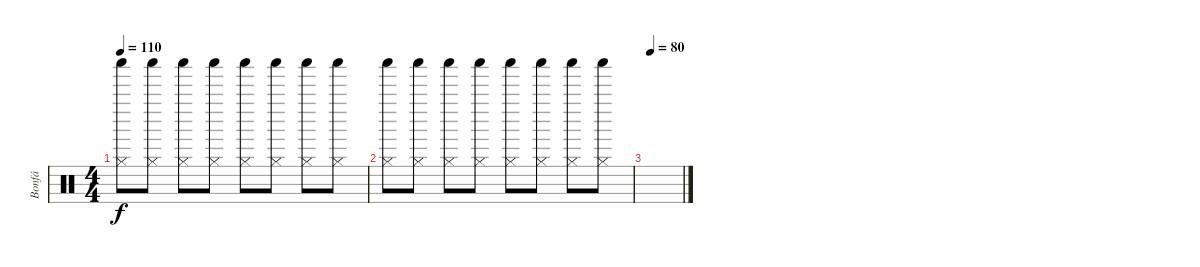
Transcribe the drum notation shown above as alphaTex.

\track ("Bonfá" "Bonfá") {instrument percussion}
\staff {score}
\articulation defaults
\ts (4 4)
\tempo 110
\clef neutral
\ks c
("Shaker (hit)" "Hi-Hat (closed)").8{dy f} ("Shaker (hit)" "Hi-Hat (closed)").8 ("Shaker (hit)" "Hi-Hat (closed)").8 ("Shaker (hit)" "Hi-Hat (closed)").8 ("Shaker (hit)" "Hi-Hat (closed)").8 ("Shaker (hit)" "Hi-Hat (closed)").8 ("Shaker (hit)" "Hi-Hat (closed)").8 ("Shaker (hit)" "Hi-Hat (closed)").8 |
("Shaker (hit)" "Hi-Hat (closed)").8 ("Shaker (hit)" "Hi-Hat (closed)").8 ("Shaker (hit)" "Hi-Hat (closed)").8 ("Shaker (hit)" "Hi-Hat (closed)").8 ("Shaker (hit)" "Hi-Hat (closed)").8 ("Shaker (hit)" "Hi-Hat (closed)").8 ("Shaker (hit)" "Hi-Hat (closed)").8 ("Shaker (hit)" "Hi-Hat (closed)").8 |
\tempo (80 0.125)
